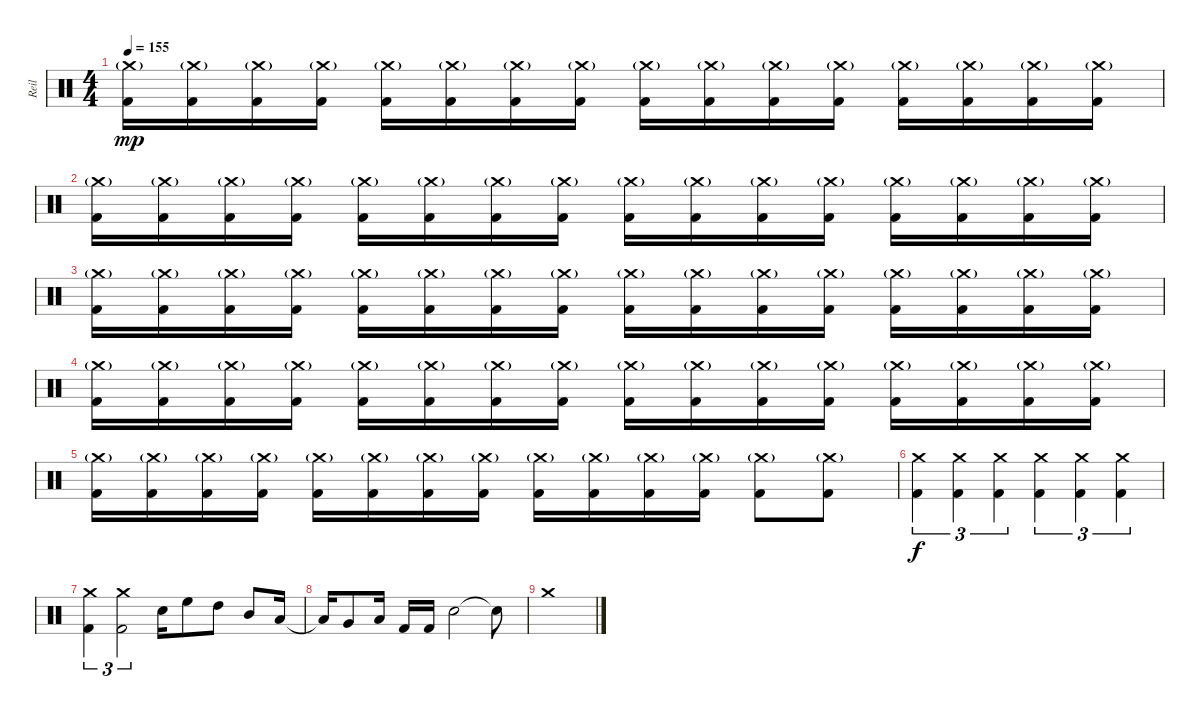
\track ("Reil" "Reil") {instrument percussion}
\staff {score}
\articulation defaults
\ts (4 4)
\tempo 155
\clef neutral
\ks c
("Crash medium (hit)"{g} "Kick (hit) 2").16{dy mp} ("Crash medium (hit)"{g} "Kick (hit) 2").16 ("Crash medium (hit)"{g} "Kick (hit) 2").16 ("Crash medium (hit)"{g} "Kick (hit) 2").16 ("Crash medium (hit)"{g} "Kick (hit) 2").16 ("Crash medium (hit)"{g} "Kick (hit) 2").16 ("Crash medium (hit)"{g} "Kick (hit) 2").16 ("Crash medium (hit)"{g} "Kick (hit) 2").16 ("Crash medium (hit)"{g} "Kick (hit) 2").16 ("Crash medium (hit)"{g} "Kick (hit) 2").16 ("Crash medium (hit)"{g} "Kick (hit) 2").16 ("Crash medium (hit)"{g} "Kick (hit) 2").16 ("Crash medium (hit)"{g} "Kick (hit) 2").16 ("Crash medium (hit)"{g} "Kick (hit) 2").16 ("Crash medium (hit)"{g} "Kick (hit) 2").16 ("Crash medium (hit)"{g} "Kick (hit) 2").16 |
("Crash medium (hit)"{g} "Kick (hit) 2").16 ("Crash medium (hit)"{g} "Kick (hit) 2").16 ("Crash medium (hit)"{g} "Kick (hit) 2").16 ("Crash medium (hit)"{g} "Kick (hit) 2").16 ("Crash medium (hit)"{g} "Kick (hit) 2").16 ("Crash medium (hit)"{g} "Kick (hit) 2").16 ("Crash medium (hit)"{g} "Kick (hit) 2").16 ("Crash medium (hit)"{g} "Kick (hit) 2").16 ("Crash medium (hit)"{g} "Kick (hit) 2").16 ("Crash medium (hit)"{g} "Kick (hit) 2").16 ("Crash medium (hit)"{g} "Kick (hit) 2").16 ("Crash medium (hit)"{g} "Kick (hit) 2").16 ("Crash medium (hit)"{g} "Kick (hit) 2").16 ("Crash medium (hit)"{g} "Kick (hit) 2").16 ("Crash medium (hit)"{g} "Kick (hit) 2").16 ("Crash medium (hit)"{g} "Kick (hit) 2").16 |
("Crash medium (hit)"{g} "Kick (hit) 2").16 ("Crash medium (hit)"{g} "Kick (hit) 2").16 ("Crash medium (hit)"{g} "Kick (hit) 2").16 ("Crash medium (hit)"{g} "Kick (hit) 2").16 ("Crash medium (hit)"{g} "Kick (hit) 2").16 ("Crash medium (hit)"{g} "Kick (hit) 2").16 ("Crash medium (hit)"{g} "Kick (hit) 2").16 ("Crash medium (hit)"{g} "Kick (hit) 2").16 ("Crash medium (hit)"{g} "Kick (hit) 2").16 ("Crash medium (hit)"{g} "Kick (hit) 2").16 ("Crash medium (hit)"{g} "Kick (hit) 2").16 ("Crash medium (hit)"{g} "Kick (hit) 2").16 ("Crash medium (hit)"{g} "Kick (hit) 2").16 ("Crash medium (hit)"{g} "Kick (hit) 2").16 ("Crash medium (hit)"{g} "Kick (hit) 2").16 ("Crash medium (hit)"{g} "Kick (hit) 2").16 |
("Crash medium (hit)"{g} "Kick (hit) 2").16 ("Crash medium (hit)"{g} "Kick (hit) 2").16 ("Crash medium (hit)"{g} "Kick (hit) 2").16 ("Crash medium (hit)"{g} "Kick (hit) 2").16 ("Crash medium (hit)"{g} "Kick (hit) 2").16 ("Crash medium (hit)"{g} "Kick (hit) 2").16 ("Crash medium (hit)"{g} "Kick (hit) 2").16 ("Crash medium (hit)"{g} "Kick (hit) 2").16 ("Crash medium (hit)"{g} "Kick (hit) 2").16 ("Crash medium (hit)"{g} "Kick (hit) 2").16 ("Crash medium (hit)"{g} "Kick (hit) 2").16 ("Crash medium (hit)"{g} "Kick (hit) 2").16 ("Crash medium (hit)"{g} "Kick (hit) 2").16 ("Crash medium (hit)"{g} "Kick (hit) 2").16 ("Crash medium (hit)"{g} "Kick (hit) 2").16 ("Crash medium (hit)"{g} "Kick (hit) 2").16 |
("Crash medium (hit)"{g} "Kick (hit) 2").16 ("Crash medium (hit)"{g} "Kick (hit) 2").16 ("Crash medium (hit)"{g} "Kick (hit) 2").16 ("Crash medium (hit)"{g} "Kick (hit) 2").16 ("Crash medium (hit)"{g} "Kick (hit) 2").16 ("Crash medium (hit)"{g} "Kick (hit) 2").16 ("Crash medium (hit)"{g} "Kick (hit) 2").16 ("Crash medium (hit)"{g} "Kick (hit) 2").16 ("Crash medium (hit)"{g} "Kick (hit) 2").16 ("Crash medium (hit)"{g} "Kick (hit) 2").16 ("Crash medium (hit)"{g} "Kick (hit) 2").16 ("Crash medium (hit)"{g} "Kick (hit) 2").16 ("Crash medium (hit)"{g} "Kick (hit) 2").8 ("Crash medium (hit)"{g} "Kick (hit) 2").8 |
("Crash medium (hit)" "Kick (hit) 2").4{tu (3 2) dy f} ("Crash medium (hit)" "Kick (hit) 2").4{tu (3 2)} ("Crash medium (hit)" "Kick (hit) 2").4{tu (3 2)} ("Crash medium (hit)" "Kick (hit) 2").4{tu (3 2)} ("Crash medium (hit)" "Kick (hit) 2").4{tu (3 2)} ("Crash medium (hit)" "Kick (hit) 2").4{tu (3 2)} |
("Crash medium (hit)" "Kick (hit) 2").4{tu (3 2)} ("Crash medium (hit)" "Kick (hit) 2").2{tu (3 2)} "Electric Snare (hit)".16 "High Floor Tom (hit)".8 "High Tom (hit)".8 "Mid Tom (hit)".8 "Low Tom (hit)".16 |
"Low Floor Tom (hit)"{t}.16 "Very Low Tom (hit)".8 "Low Floor Tom (hit)".16 "Kick (hit) 2".16 "Kick (hit) 2".16 "Electric Snare (hit)".2 "Snare (hit)"{t}.8 |
"Crash medium (hit)".1
